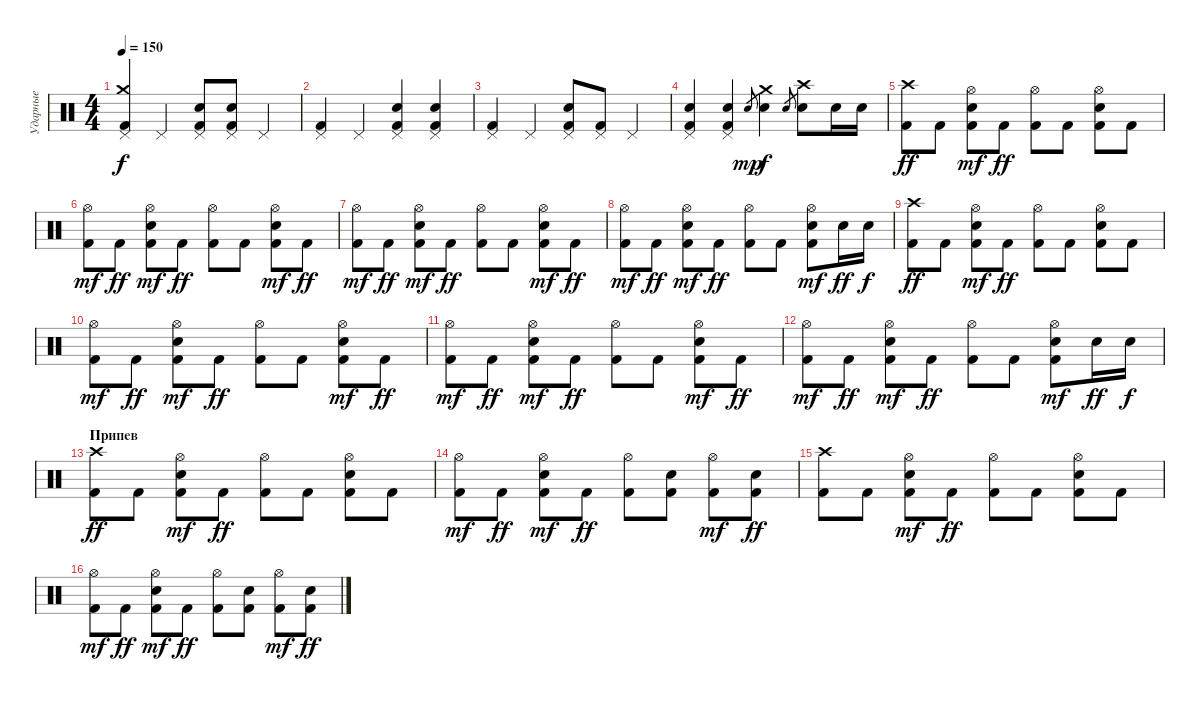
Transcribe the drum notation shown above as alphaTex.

\track ("Ударные" "Ударные") {instrument percussion}
\staff {score}
\articulation defaults
\ts (4 4)
\tempo 150
\clef neutral
\ks c
("Pedal Hi-Hat (hit)" "Crash medium (hit)" "Kick (hit) 2").4{dy f} "Pedal Hi-Hat (hit)".4 ("Pedal Hi-Hat (hit)" "Electric Snare (hit)" "Kick (hit) 2").8 ("Pedal Hi-Hat (hit)" "Electric Snare (hit)" "Kick (hit) 2").8 "Pedal Hi-Hat (hit)".4 |
("Pedal Hi-Hat (hit)" "Kick (hit) 2").4 "Pedal Hi-Hat (hit)".4 ("Pedal Hi-Hat (hit)" "Electric Snare (hit)" "Kick (hit) 2").4 ("Pedal Hi-Hat (hit)" "Electric Snare (hit)" "Kick (hit) 2").4 |
("Pedal Hi-Hat (hit)" "Kick (hit) 2").4 "Pedal Hi-Hat (hit)".4 ("Pedal Hi-Hat (hit)" "Electric Snare (hit)" "Kick (hit) 2").8 ("Pedal Hi-Hat (hit)" "Kick (hit) 2").8 "Pedal Hi-Hat (hit)".4 |
("Pedal Hi-Hat (hit)" "Electric Snare (hit)" "Kick (hit) 2").4 ("Pedal Hi-Hat (hit)" "Electric Snare (hit)" "Kick (hit) 2").4 "Electric Snare (hit)".8{gr dy mp} ("Electric Snare (hit)" "Crash medium (hit)").4{dy f} "Electric Snare (hit)".8{gr} ("Electric Snare (hit)" "Crash high (hit)").8 "Electric Snare (hit)".16 "Electric Snare (hit)".16 |
("Crash high (hit)" "Kick (hit) 2").8{dy ff} "Kick (hit) 2".8 ("Kick (hit) 2" "Electric Snare (hit)" "Hi-Hat (open)").8{dy mf} "Kick (hit) 2".8{dy ff} ("Hi-Hat (open)" "Kick (hit) 2").8 "Kick (hit) 2".8 ("Kick (hit) 2" "Hi-Hat (open)" "Electric Snare (hit)").8 "Kick (hit) 2".8 |
("Kick (hit) 2" "Hi-Hat (open)").8{dy mf} "Kick (hit) 2".8{dy ff} ("Electric Snare (hit)" "Kick (hit) 2" "Hi-Hat (open)").8{dy mf} "Kick (hit) 2".8{dy ff} ("Hi-Hat (open)" "Kick (hit) 2").8 "Kick (hit) 2".8 ("Electric Snare (hit)" "Kick (hit) 2" "Hi-Hat (open)").8{dy mf} "Kick (hit) 2".8{dy ff} |
("Kick (hit) 2" "Hi-Hat (open)").8{dy mf} "Kick (hit) 2".8{dy ff} ("Electric Snare (hit)" "Kick (hit) 2" "Hi-Hat (open)").8{dy mf} "Kick (hit) 2".8{dy ff} ("Hi-Hat (open)" "Kick (hit) 2").8 "Kick (hit) 2".8 ("Electric Snare (hit)" "Kick (hit) 2" "Hi-Hat (open)").8{dy mf} "Kick (hit) 2".8{dy ff} |
("Kick (hit) 2" "Hi-Hat (open)").8{dy mf} "Kick (hit) 2".8{dy ff} ("Electric Snare (hit)" "Kick (hit) 2" "Hi-Hat (open)").8{dy mf} "Kick (hit) 2".8{dy ff} ("Hi-Hat (open)" "Kick (hit) 2").8 "Kick (hit) 2".8 ("Electric Snare (hit)" "Kick (hit) 2" "Hi-Hat (open)").8{dy mf} "Electric Snare (hit)".16{dy ff} "Electric Snare (hit)".16{dy f} |
("Crash high (hit)" "Kick (hit) 2").8{dy ff} "Kick (hit) 2".8 ("Kick (hit) 2" "Electric Snare (hit)" "Hi-Hat (open)").8{dy mf} "Kick (hit) 2".8{dy ff} ("Hi-Hat (open)" "Kick (hit) 2").8 "Kick (hit) 2".8 ("Kick (hit) 2" "Hi-Hat (open)" "Electric Snare (hit)").8 "Kick (hit) 2".8 |
("Kick (hit) 2" "Hi-Hat (open)").8{dy mf} "Kick (hit) 2".8{dy ff} ("Electric Snare (hit)" "Kick (hit) 2" "Hi-Hat (open)").8{dy mf} "Kick (hit) 2".8{dy ff} ("Hi-Hat (open)" "Kick (hit) 2").8 "Kick (hit) 2".8 ("Electric Snare (hit)" "Kick (hit) 2" "Hi-Hat (open)").8{dy mf} "Kick (hit) 2".8{dy ff} |
("Kick (hit) 2" "Hi-Hat (open)").8{dy mf} "Kick (hit) 2".8{dy ff} ("Electric Snare (hit)" "Kick (hit) 2" "Hi-Hat (open)").8{dy mf} "Kick (hit) 2".8{dy ff} ("Hi-Hat (open)" "Kick (hit) 2").8 "Kick (hit) 2".8 ("Electric Snare (hit)" "Kick (hit) 2" "Hi-Hat (open)").8{dy mf} "Kick (hit) 2".8{dy ff} |
("Kick (hit) 2" "Hi-Hat (open)").8{dy mf} "Kick (hit) 2".8{dy ff} ("Electric Snare (hit)" "Kick (hit) 2" "Hi-Hat (open)").8{dy mf} "Kick (hit) 2".8{dy ff} ("Hi-Hat (open)" "Kick (hit) 2").8 "Kick (hit) 2".8 ("Electric Snare (hit)" "Kick (hit) 2" "Hi-Hat (open)").8{dy mf} "Electric Snare (hit)".16{dy ff} "Electric Snare (hit)".16{dy f} |
\section ("" "Припев")
("Crash high (hit)" "Kick (hit) 2").8{dy ff} "Kick (hit) 2".8 ("Kick (hit) 2" "Electric Snare (hit)" "Hi-Hat (open)").8{dy mf} "Kick (hit) 2".8{dy ff} ("Hi-Hat (open)" "Kick (hit) 2").8 "Kick (hit) 2".8 ("Kick (hit) 2" "Hi-Hat (open)" "Electric Snare (hit)").8 "Kick (hit) 2".8 |
("Kick (hit) 2" "Hi-Hat (open)").8{dy mf} "Kick (hit) 2".8{dy ff} ("Electric Snare (hit)" "Kick (hit) 2" "Hi-Hat (open)").8{dy mf} "Kick (hit) 2".8{dy ff} ("Hi-Hat (open)" "Kick (hit) 2").8 ("Kick (hit) 2" "Electric Snare (hit)").8 ("Kick (hit) 2" "Hi-Hat (open)").8{dy mf} ("Kick (hit) 2" "Electric Snare (hit)").8{dy ff} |
("Crash high (hit)" "Kick (hit) 2").8 "Kick (hit) 2".8 ("Kick (hit) 2" "Electric Snare (hit)" "Hi-Hat (open)").8{dy mf} "Kick (hit) 2".8{dy ff} ("Hi-Hat (open)" "Kick (hit) 2").8 "Kick (hit) 2".8 ("Kick (hit) 2" "Hi-Hat (open)" "Electric Snare (hit)").8 "Kick (hit) 2".8 |
("Kick (hit) 2" "Hi-Hat (open)").8{dy mf} "Kick (hit) 2".8{dy ff} ("Electric Snare (hit)" "Kick (hit) 2" "Hi-Hat (open)").8{dy mf} "Kick (hit) 2".8{dy ff} ("Hi-Hat (open)" "Kick (hit) 2").8 ("Kick (hit) 2" "Electric Snare (hit)").8 ("Kick (hit) 2" "Hi-Hat (open)").8{dy mf} ("Kick (hit) 2" "Electric Snare (hit)").8{dy ff}
